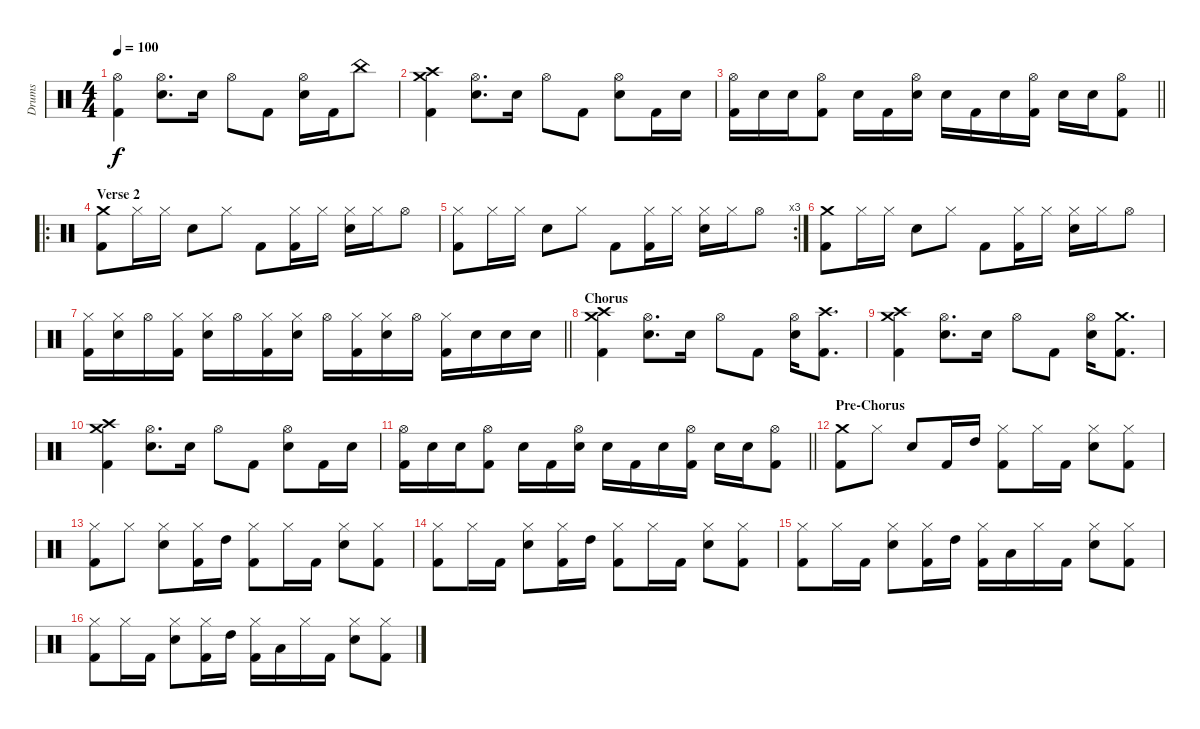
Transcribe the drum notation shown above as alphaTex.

\track ("Drums" "Drums") {instrument percussion}
\staff {score}
\articulation defaults
\ts (4 4)
\tempo 100
\clef neutral
\ks c
("Hi-Hat (open)" "Kick (hit) 2").4{dy f} ("Hi-Hat (open)" "Electric Snare (hit)").8{d} "Electric Snare (hit)".16 "Hi-Hat (open)".8 "Kick (hit) 2".8 ("Hi-Hat (open)" "Electric Snare (hit)").16 "Kick (hit) 2".16 "China (hit)".8 |
("Crash high (hit)" "Crash medium (hit)" "Kick (hit) 2").4 ("Hi-Hat (open)" "Electric Snare (hit)").8{d} "Electric Snare (hit)".16 "Hi-Hat (open)".8 "Kick (hit) 2".8 ("Hi-Hat (open)" "Electric Snare (hit)").8 "Kick (hit) 2".16 "Electric Snare (hit)".16 |
\barLineRight lightlight
("Hi-Hat (open)" "Kick (hit) 2").16 "Electric Snare (hit)".16 "Electric Snare (hit)".16 ("Hi-Hat (open)" "Kick (hit) 2").8 "Electric Snare (hit)".16 "Kick (hit) 2".16 ("Hi-Hat (open)" "Electric Snare (hit)").16 "Electric Snare (hit)".16 "Kick (hit) 2".16 "Electric Snare (hit)".16 ("Hi-Hat (open)" "Kick (hit) 2").16 "Electric Snare (hit)".16 "Electric Snare (hit)".16 ("Hi-Hat (open)" "Kick (hit) 2").8 |
\ro
\section ("" "Verse 2")
("Crash medium (hit)" "Kick (hit) 2").8 "Hi-Hat (closed)".16 "Hi-Hat (closed)".16 "Electric Snare (hit)".8 "Hi-Hat (closed)".8 "Kick (hit) 2".8 ("Hi-Hat (closed)" "Kick (hit) 2").16 "Hi-Hat (closed)".16 ("Hi-Hat (closed)" "Electric Snare (hit)").16 "Hi-Hat (closed)".16 "Hi-Hat (open)".8 |
\rc 3
("Hi-Hat (closed)" "Kick (hit) 2").8 "Hi-Hat (closed)".16 "Hi-Hat (closed)".16 "Electric Snare (hit)".8 "Hi-Hat (closed)".8 "Kick (hit) 2".8 ("Hi-Hat (closed)" "Kick (hit) 2").16 "Hi-Hat (closed)".16 ("Hi-Hat (closed)" "Electric Snare (hit)").16 "Hi-Hat (closed)".16 "Hi-Hat (open)".8 |
("Crash medium (hit)" "Kick (hit) 2").8 "Hi-Hat (closed)".16 "Hi-Hat (closed)".16 "Electric Snare (hit)".8 "Hi-Hat (closed)".8 "Kick (hit) 2".8 ("Hi-Hat (closed)" "Kick (hit) 2").16 "Hi-Hat (closed)".16 ("Hi-Hat (closed)" "Electric Snare (hit)").16 "Hi-Hat (closed)".16 "Hi-Hat (open)".8 |
\barLineRight lightlight
("Hi-Hat (closed)" "Kick (hit) 2").16 ("Hi-Hat (closed)" "Electric Snare (hit)").16 "Hi-Hat (open)".16 ("Hi-Hat (closed)" "Kick (hit) 2").16 ("Hi-Hat (closed)" "Electric Snare (hit)").16 "Hi-Hat (open)".16 ("Hi-Hat (closed)" "Kick (hit) 2").16 ("Hi-Hat (closed)" "Electric Snare (hit)").16 "Hi-Hat (open)".16 ("Hi-Hat (closed)" "Kick (hit) 2").16 ("Hi-Hat (closed)" "Electric Snare (hit)").16 "Hi-Hat (open)".16 ("Hi-Hat (closed)" "Kick (hit) 2").16 "Electric Snare (hit)".16 "Electric Snare (hit)".16 "Electric Snare (hit)".16 |
\section ("" "Chorus")
("Crash high (hit)" "Crash medium (hit)" "Kick (hit) 2").4 ("Hi-Hat (open)" "Electric Snare (hit)").8{d} "Electric Snare (hit)".16 "Hi-Hat (open)".8 "Kick (hit) 2".8 ("Hi-Hat (open)" "Electric Snare (hit)").16 ("Crash high (hit)" "Kick (hit) 2").8{d} |
("Crash high (hit)" "Crash medium (hit)" "Kick (hit) 2").4 ("Hi-Hat (open)" "Electric Snare (hit)").8{d} "Electric Snare (hit)".16 "Hi-Hat (open)".8 "Kick (hit) 2".8 ("Hi-Hat (open)" "Electric Snare (hit)").16 ("Crash medium (hit)" "Kick (hit) 2").8{d} |
("Crash high (hit)" "Crash medium (hit)" "Kick (hit) 2").4 ("Hi-Hat (open)" "Electric Snare (hit)").8{d} "Electric Snare (hit)".16 "Hi-Hat (open)".8 "Kick (hit) 2".8 ("Hi-Hat (open)" "Electric Snare (hit)").8 "Kick (hit) 2".16 "Electric Snare (hit)".16 |
\barLineRight lightlight
("Hi-Hat (open)" "Kick (hit) 2").16 "Electric Snare (hit)".16 "Electric Snare (hit)".16 ("Hi-Hat (open)" "Kick (hit) 2").8 "Electric Snare (hit)".16 "Kick (hit) 2".16 ("Hi-Hat (open)" "Electric Snare (hit)").16 "Electric Snare (hit)".16 "Kick (hit) 2".16 "Electric Snare (hit)".16 ("Hi-Hat (open)" "Kick (hit) 2").16 "Electric Snare (hit)".16 "Electric Snare (hit)".16 ("Hi-Hat (open)" "Kick (hit) 2").8 |
\section ("" "Pre-Chorus")
("Crash medium (hit)" "Kick (hit) 2").8 "Hi-Hat (closed)".8 "Electric Snare (hit)".8 "Kick (hit) 2".16 "High Tom (hit)".16 ("Hi-Hat (closed)" "Kick (hit) 2").8 "Hi-Hat (closed)".16 "Kick (hit) 2".16 ("Hi-Hat (closed)" "Electric Snare (hit)").8 ("Hi-Hat (closed)" "Kick (hit) 2").8 |
("Hi-Hat (closed)" "Kick (hit) 2").8 "Hi-Hat (closed)".8 ("Hi-Hat (closed)" "Electric Snare (hit)").8 ("Hi-Hat (closed)" "Kick (hit) 2").16 "High Tom (hit)".16 ("Hi-Hat (closed)" "Kick (hit) 2").8 "Hi-Hat (closed)".16 "Kick (hit) 2".16 ("Hi-Hat (closed)" "Electric Snare (hit)").8 ("Hi-Hat (closed)" "Kick (hit) 2").8 |
("Hi-Hat (closed)" "Kick (hit) 2").8 "Hi-Hat (closed)".16 "Kick (hit) 2".16 ("Hi-Hat (closed)" "Electric Snare (hit)").8 ("Hi-Hat (closed)" "Kick (hit) 2").16 "High Tom (hit)".16 ("Hi-Hat (closed)" "Kick (hit) 2").8 "Hi-Hat (closed)".16 "Kick (hit) 2".16 ("Hi-Hat (closed)" "Electric Snare (hit)").8 ("Hi-Hat (closed)" "Kick (hit) 2").8 |
("Hi-Hat (closed)" "Kick (hit) 2").8 "Hi-Hat (closed)".16 "Kick (hit) 2".16 ("Hi-Hat (closed)" "Electric Snare (hit)").8 ("Hi-Hat (closed)" "Kick (hit) 2").16 "High Tom (hit)".16 ("Hi-Hat (closed)" "Kick (hit) 2").16 "Low Tom (hit)".16 "Hi-Hat (closed)".16 "Kick (hit) 2".16 ("Hi-Hat (closed)" "Electric Snare (hit)").8 ("Hi-Hat (closed)" "Kick (hit) 2").8 |
("Hi-Hat (closed)" "Kick (hit) 2").8 "Hi-Hat (closed)".16 "Kick (hit) 2".16 ("Hi-Hat (closed)" "Electric Snare (hit)").8 ("Hi-Hat (closed)" "Kick (hit) 2").16 "High Tom (hit)".16 ("Hi-Hat (closed)" "Kick (hit) 2").16 "Low Tom (hit)".16 "Hi-Hat (closed)".16 "Kick (hit) 2".16 ("Hi-Hat (closed)" "Electric Snare (hit)").8 ("Hi-Hat (closed)" "Kick (hit) 2").8
